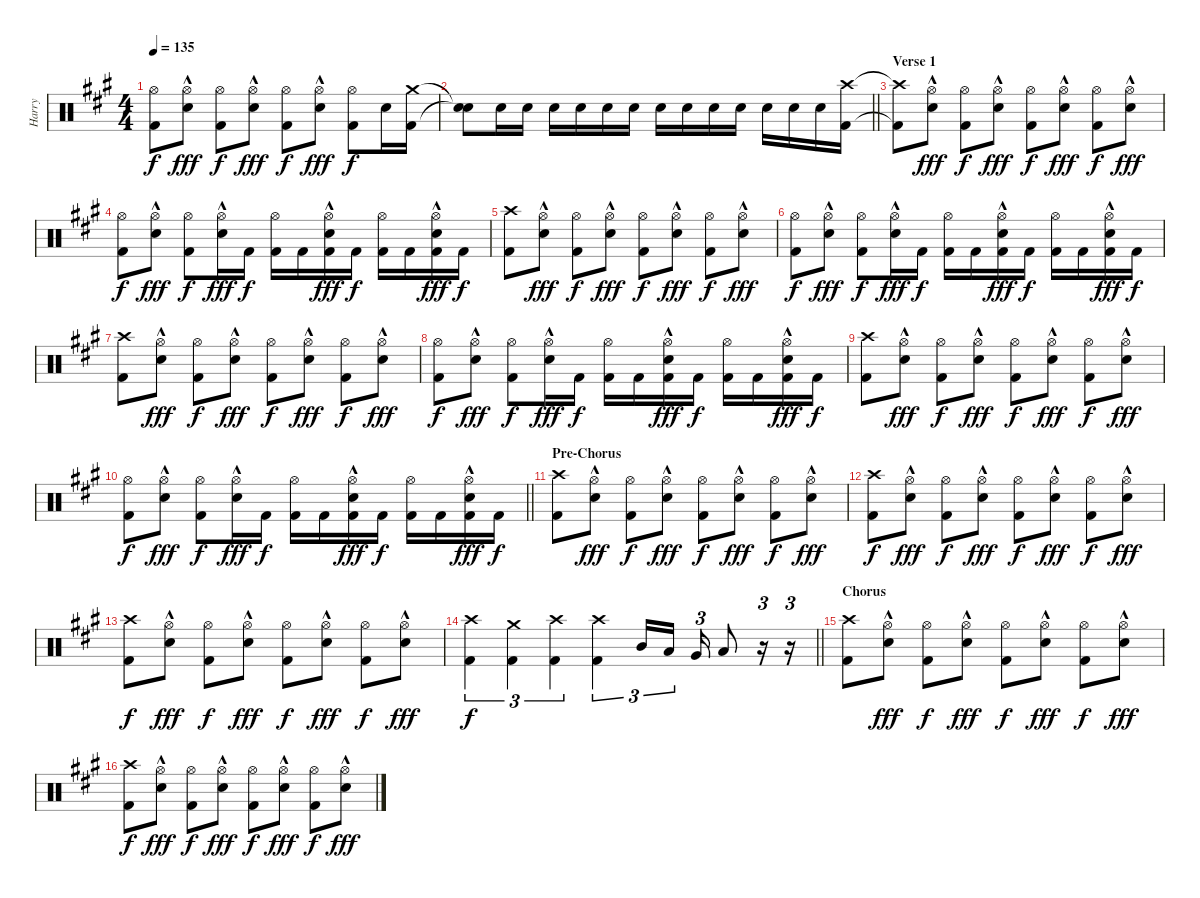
\track ("Harry" "Harry") {instrument percussion}
\staff {score}
\articulation defaults
\ts (4 4)
\tempo 135
\clef neutral
\ks a
("Hi-Hat (open)" "Kick (hit) 2").8{dy f} ("Hi-Hat (open)"{hac} "Snare (hit) 2"{hac}).8{dy fff} ("Hi-Hat (open)" "Kick (hit) 2").8{dy f} ("Hi-Hat (open)"{hac} "Snare (hit) 2"{hac}).8{dy fff} ("Hi-Hat (open)" "Kick (hit) 2").8{dy f} ("Hi-Hat (open)"{hac} "Snare (hit) 2"{hac}).8{dy fff} ("Hi-Hat (open)" "Kick (hit) 2").8{dy f} "Snare (hit) 2".16 ("Crash medium (hit)" "Kick (hit) 2").16 |
\barLineRight lightlight
("Snare (hit)"{t} "Snare (hit)"{t}).8 "Snare (hit) 2".16 "Snare (hit) 2".16 "Snare (hit) 2".16 "Snare (hit) 2".16 "Snare (hit) 2".16 "Snare (hit) 2".16 "Snare (hit) 2".16 "Snare (hit) 2".16 "Snare (hit) 2".16 "Snare (hit) 2".16 "Snare (hit) 2".16 "Snare (hit) 2".16 "Snare (hit) 2".16 ("Crash high (hit)" "Kick (hit) 2").16 |
\section ("" "Verse 1")
("Crash high (hit)"{t} "Kick (hit) 2"{t}).8 ("Hi-Hat (open)"{hac} "Snare (hit) 2"{hac}).8{dy fff} ("Hi-Hat (open)" "Kick (hit) 2").8{dy f} ("Hi-Hat (open)"{hac} "Snare (hit) 2"{hac}).8{dy fff} ("Hi-Hat (open)" "Kick (hit) 2").8{dy f} ("Hi-Hat (open)"{hac} "Snare (hit) 2"{hac}).8{dy fff} ("Hi-Hat (open)" "Kick (hit) 2").8{dy f} ("Hi-Hat (open)"{hac} "Snare (hit) 2"{hac}).8{dy fff} |
("Hi-Hat (open)" "Kick (hit) 2").8{dy f} ("Hi-Hat (open)"{hac} "Snare (hit) 2"{hac}).8{dy fff} ("Hi-Hat (open)" "Kick (hit) 2").8{dy f} ("Hi-Hat (open)"{hac} "Snare (hit) 2"{hac}).16{dy fff} "Kick (hit) 2".16{dy f} ("Hi-Hat (open)" "Kick (hit) 2").16 "Kick (hit) 2".16 ("Snare (hit) 2"{hac} "Hi-Hat (open)"{hac} "Kick (hit) 2"{hac}).16{dy fff} "Kick (hit) 2".16{dy f} ("Hi-Hat (open)" "Kick (hit) 2").16 "Kick (hit) 2".16 ("Snare (hit) 2"{hac} "Hi-Hat (open)"{hac} "Kick (hit) 2"{hac}).16{dy fff} "Kick (hit) 2".16{dy f} |
("Crash high (hit)" "Kick (hit) 2").8 ("Hi-Hat (open)"{hac} "Snare (hit) 2"{hac}).8{dy fff} ("Hi-Hat (open)" "Kick (hit) 2").8{dy f} ("Hi-Hat (open)"{hac} "Snare (hit) 2"{hac}).8{dy fff} ("Hi-Hat (open)" "Kick (hit) 2").8{dy f} ("Hi-Hat (open)"{hac} "Snare (hit) 2"{hac}).8{dy fff} ("Hi-Hat (open)" "Kick (hit) 2").8{dy f} ("Hi-Hat (open)"{hac} "Snare (hit) 2"{hac}).8{dy fff} |
("Hi-Hat (open)" "Kick (hit) 2").8{dy f} ("Hi-Hat (open)"{hac} "Snare (hit) 2"{hac}).8{dy fff} ("Hi-Hat (open)" "Kick (hit) 2").8{dy f} ("Hi-Hat (open)"{hac} "Snare (hit) 2"{hac}).16{dy fff} "Kick (hit) 2".16{dy f} ("Hi-Hat (open)" "Kick (hit) 2").16 "Kick (hit) 2".16 ("Snare (hit) 2"{hac} "Hi-Hat (open)"{hac} "Kick (hit) 2"{hac}).16{dy fff} "Kick (hit) 2".16{dy f} ("Hi-Hat (open)" "Kick (hit) 2").16 "Kick (hit) 2".16 ("Snare (hit) 2"{hac} "Hi-Hat (open)"{hac} "Kick (hit) 2"{hac}).16{dy fff} "Kick (hit) 2".16{dy f} |
("Crash high (hit)" "Kick (hit) 2").8 ("Hi-Hat (open)"{hac} "Snare (hit) 2"{hac}).8{dy fff} ("Hi-Hat (open)" "Kick (hit) 2").8{dy f} ("Hi-Hat (open)"{hac} "Snare (hit) 2"{hac}).8{dy fff} ("Hi-Hat (open)" "Kick (hit) 2").8{dy f} ("Hi-Hat (open)"{hac} "Snare (hit) 2"{hac}).8{dy fff} ("Hi-Hat (open)" "Kick (hit) 2").8{dy f} ("Hi-Hat (open)"{hac} "Snare (hit) 2"{hac}).8{dy fff} |
("Hi-Hat (open)" "Kick (hit) 2").8{dy f} ("Hi-Hat (open)"{hac} "Snare (hit) 2"{hac}).8{dy fff} ("Hi-Hat (open)" "Kick (hit) 2").8{dy f} ("Hi-Hat (open)"{hac} "Snare (hit) 2"{hac}).16{dy fff} "Kick (hit) 2".16{dy f} ("Hi-Hat (open)" "Kick (hit) 2").16 "Kick (hit) 2".16 ("Snare (hit) 2"{hac} "Hi-Hat (open)"{hac} "Kick (hit) 2"{hac}).16{dy fff} "Kick (hit) 2".16{dy f} ("Hi-Hat (open)" "Kick (hit) 2").16 "Kick (hit) 2".16 ("Snare (hit) 2"{hac} "Hi-Hat (open)"{hac} "Kick (hit) 2"{hac}).16{dy fff} "Kick (hit) 2".16{dy f} |
("Crash high (hit)" "Kick (hit) 2").8 ("Hi-Hat (open)"{hac} "Snare (hit) 2"{hac}).8{dy fff} ("Hi-Hat (open)" "Kick (hit) 2").8{dy f} ("Hi-Hat (open)"{hac} "Snare (hit) 2"{hac}).8{dy fff} ("Hi-Hat (open)" "Kick (hit) 2").8{dy f} ("Hi-Hat (open)"{hac} "Snare (hit) 2"{hac}).8{dy fff} ("Hi-Hat (open)" "Kick (hit) 2").8{dy f} ("Hi-Hat (open)"{hac} "Snare (hit) 2"{hac}).8{dy fff} |
\barLineRight lightlight
("Hi-Hat (open)" "Kick (hit) 2").8{dy f} ("Hi-Hat (open)"{hac} "Snare (hit) 2"{hac}).8{dy fff} ("Hi-Hat (open)" "Kick (hit) 2").8{dy f} ("Hi-Hat (open)"{hac} "Snare (hit) 2"{hac}).16{dy fff} "Kick (hit) 2".16{dy f} ("Hi-Hat (open)" "Kick (hit) 2").16 "Kick (hit) 2".16 ("Snare (hit) 2"{hac} "Hi-Hat (open)"{hac} "Kick (hit) 2"{hac}).16{dy fff} "Kick (hit) 2".16{dy f} ("Hi-Hat (open)" "Kick (hit) 2").16 "Kick (hit) 2".16 ("Snare (hit) 2"{hac} "Hi-Hat (open)"{hac} "Kick (hit) 2"{hac}).16{dy fff} "Kick (hit) 2".16{dy f} |
\section ("" "Pre-Chorus")
("Crash high (hit)" "Kick (hit) 2").8 ("Hi-Hat (open)"{hac} "Snare (hit) 2"{hac}).8{dy fff} ("Hi-Hat (open)" "Kick (hit) 2").8{dy f} ("Hi-Hat (open)"{hac} "Snare (hit) 2"{hac}).8{dy fff} ("Hi-Hat (open)" "Kick (hit) 2").8{dy f} ("Hi-Hat (open)"{hac} "Snare (hit) 2"{hac}).8{dy fff} ("Hi-Hat (open)" "Kick (hit) 2").8{dy f} ("Hi-Hat (open)"{hac} "Snare (hit) 2"{hac}).8{dy fff} |
("Crash high (hit)" "Kick (hit) 2").8{dy f} ("Hi-Hat (open)"{hac} "Snare (hit) 2"{hac}).8{dy fff} ("Hi-Hat (open)" "Kick (hit) 2").8{dy f} ("Hi-Hat (open)"{hac} "Snare (hit) 2"{hac}).8{dy fff} ("Hi-Hat (open)" "Kick (hit) 2").8{dy f} ("Hi-Hat (open)"{hac} "Snare (hit) 2"{hac}).8{dy fff} ("Hi-Hat (open)" "Kick (hit) 2").8{dy f} ("Hi-Hat (open)"{hac} "Snare (hit) 2"{hac}).8{dy fff} |
("Crash high (hit)" "Kick (hit) 2").8{dy f} ("Hi-Hat (open)"{hac} "Snare (hit) 2"{hac}).8{dy fff} ("Hi-Hat (open)" "Kick (hit) 2").8{dy f} ("Hi-Hat (open)"{hac} "Snare (hit) 2"{hac}).8{dy fff} ("Hi-Hat (open)" "Kick (hit) 2").8{dy f} ("Hi-Hat (open)"{hac} "Snare (hit) 2"{hac}).8{dy fff} ("Hi-Hat (open)" "Kick (hit) 2").8{dy f} ("Hi-Hat (open)"{hac} "Snare (hit) 2"{hac}).8{dy fff} |
\barLineRight lightlight
("Crash high (hit)" "Kick (hit) 2").4{tu (3 2) dy f} ("Crash medium (hit)" "Kick (hit) 2").4{tu (3 2)} ("Crash high (hit)" "Kick (hit) 2").4{tu (3 2)} ("Crash high (hit)" "Kick (hit) 2").4{tu (3 2)} "Mid Tom (hit)".16{tu (3 2)} "Low Tom (hit)".16{tu (3 2)} "Very Low Tom (hit)".16{tu (3 2)} "Low Floor Tom (hit)".8 r.16{tu (3 2)} r.16{tu (3 2)} |
\section ("" "Chorus")
("Crash high (hit)" "Kick (hit) 2").8 ("Hi-Hat (open)"{hac} "Snare (hit) 2"{hac}).8{dy fff} ("Hi-Hat (open)" "Kick (hit) 2").8{dy f} ("Hi-Hat (open)"{hac} "Snare (hit) 2"{hac}).8{dy fff} ("Hi-Hat (open)" "Kick (hit) 2").8{dy f} ("Hi-Hat (open)"{hac} "Snare (hit) 2"{hac}).8{dy fff} ("Hi-Hat (open)" "Kick (hit) 2").8{dy f} ("Hi-Hat (open)"{hac} "Snare (hit) 2"{hac}).8{dy fff} |
("Crash high (hit)" "Kick (hit) 2").8{dy f} ("Hi-Hat (open)"{hac} "Snare (hit) 2"{hac}).8{dy fff} ("Hi-Hat (open)" "Kick (hit) 2").8{dy f} ("Hi-Hat (open)"{hac} "Snare (hit) 2"{hac}).8{dy fff} ("Hi-Hat (open)" "Kick (hit) 2").8{dy f} ("Hi-Hat (open)"{hac} "Snare (hit) 2"{hac}).8{dy fff} ("Hi-Hat (open)" "Kick (hit) 2").8{dy f} ("Hi-Hat (open)"{hac} "Snare (hit) 2"{hac}).8{dy fff}
